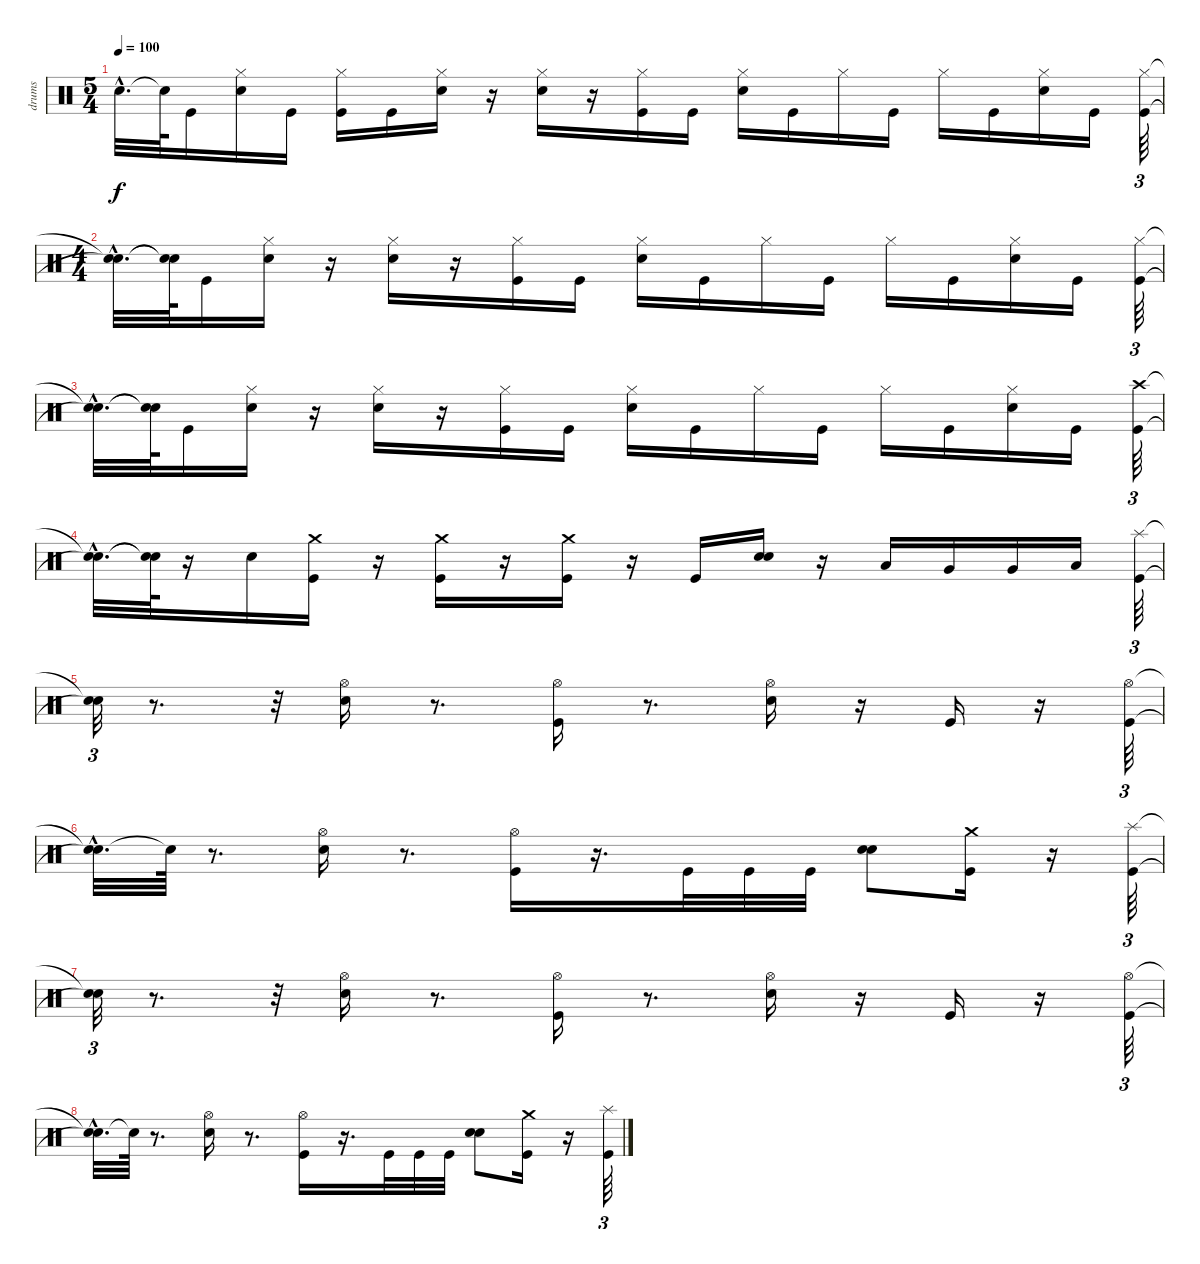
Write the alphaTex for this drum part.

\track ("drums" "drums") {instrument percussion}
\staff {score}
\articulation defaults
\ts (5 4)
\tempo 100
\clef neutral
\ks c "Snare (hit)"{hac t}.32{d dy f} "Snare (hit)"{t}.64 "Kick (hit)".16
("Electric Snare (hit)" "Hi-Hat (closed)").16 "Kick (hit)".16 ("Kick (hit)" "Hi-Hat (closed)").16 "Kick (hit)".16 ("Electric Snare (hit)" "Hi-Hat (closed)").16 r.16 ("Hi-Hat (closed)" "Electric Snare (hit)").16 r.16 ("Hi-Hat (closed)" "Kick (hit)").16 "Kick (hit)".16 ("Hi-Hat (closed)" "Electric Snare (hit)").16 "Kick (hit)".16 "Hi-Hat (closed)".16 "Kick (hit)".16 "Hi-Hat (closed)".16 "Kick (hit)".16 ("Electric Snare (hit)" "Hi-Hat (closed)").16 "Kick (hit)".16 ("Kick (hit)" "Hi-Hat (closed)").64{tu (3 2)} |
\ts (4 4)
("Snare (hit)"{hac t} "Snare (hit)"{hac t}).32{d} ("Snare (hit)"{t} "Snare (hit)"{t}).64 "Kick (hit)".16 ("Electric Snare (hit)" "Hi-Hat (closed)").16 r.16 ("Hi-Hat (closed)" "Electric Snare (hit)").16 r.16 ("Hi-Hat (closed)" "Kick (hit)").16 "Kick (hit)".16 ("Hi-Hat (closed)" "Electric Snare (hit)").16 "Kick (hit)".16 "Hi-Hat (closed)".16 "Kick (hit)".16 "Hi-Hat (closed)".16 "Kick (hit)".16 ("Hi-Hat (closed)" "Electric Snare (hit)").16 "Kick (hit)".16 ("Kick (hit)" "Hi-Hat (closed)").64{tu (3 2)} |
("Snare (hit)"{hac t} "Snare (hit)"{hac t}).32{d} ("Snare (hit)"{t} "Snare (hit)"{t}).64 "Kick (hit)".16 ("Electric Snare (hit)" "Hi-Hat (closed)").16 r.16 ("Electric Snare (hit)" "Hi-Hat (closed)").16 r.16 ("Kick (hit)" "Hi-Hat (closed)").16 "Kick (hit)".16 ("Electric Snare (hit)" "Hi-Hat (closed)").16 "Kick (hit)".16 "Hi-Hat (closed)".16 "Kick (hit)".16 "Hi-Hat (closed)".16 "Kick (hit)".16 ("Electric Snare (hit)" "Hi-Hat (closed)").16 "Kick (hit)".16 ("Crash high (hit)" "Kick (hit)").64{tu (3 2)} |
("Snare (hit)"{hac t} "Snare (hit)"{hac t}).32{d} ("Snare (hit)"{t} "Snare (hit)"{t}).64 r.16 "Electric Snare (hit)".16 ("Crash medium (hit)" "Kick (hit)").16 r.16 ("Crash medium (hit)" "Kick (hit)").16 r.16 ("Crash medium (hit)" "Kick (hit)").16 r.16 "Kick (hit)".16 ("Electric Snare (hit)" "Electric Snare (hit)").16 r.16 "Low Tom (hit)".16 "Very Low Tom (hit)".16 "Very Low Tom (hit)".16 "Low Floor Tom (hit)".16 ("Kick (hit)" "Splash (hit)").64{tu (3 2)} |
("Snare (hit)"{t} "Snare (hit)"{t}).32{tu (3 2)} r.8{d} r.32 ("Hi-Hat (open)" "Electric Snare (hit)").16 r.8{d} ("Kick (hit)" "Hi-Hat (open)").16 r.8{d} ("Hi-Hat (open)" "Electric Snare (hit)").16 r.16 "Kick (hit)".16 r.16 ("Hi-Hat (open)" "Kick (hit)").64{tu (3 2)} |
("Snare (hit)"{t} "Snare (hit)"{hac t}).32{d} "Snare (hit)"{t}.64 r.8{d} ("Electric Snare (hit)" "Hi-Hat (open)").16 r.8{d} ("Kick (hit)" "Hi-Hat (open)").16 r.16{d} "Kick (hit)".32 "Kick (hit)".32 "Kick (hit)".32 ("Electric Snare (hit)" "Electric Snare (hit)").8 ("Crash medium (hit)" "Kick (hit)").16 r.16 ("Kick (hit)" "Splash (hit)").64{tu (3 2)} |
("Snare (hit)"{t} "Snare (hit)"{t}).32{tu (3 2)} r.8{d} r.32 ("Hi-Hat (open)" "Electric Snare (hit)").16 r.8{d} ("Kick (hit)" "Hi-Hat (open)").16 r.8{d} ("Hi-Hat (open)" "Electric Snare (hit)").16 r.16 "Kick (hit)".16 r.16 ("Hi-Hat (open)" "Kick (hit)").64{tu (3 2)} |
("Snare (hit)"{t} "Snare (hit)"{hac t}).32{d} "Snare (hit)"{t}.64 r.8{d} ("Electric Snare (hit)" "Hi-Hat (open)").16 r.8{d} ("Kick (hit)" "Hi-Hat (open)").16 r.16{d} "Kick (hit)".32 "Kick (hit)".32 "Kick (hit)".32 ("Electric Snare (hit)" "Electric Snare (hit)").8 ("Crash medium (hit)" "Kick (hit)").16 r.16 ("Kick (hit)" "Splash (hit)").64{tu (3 2)}
